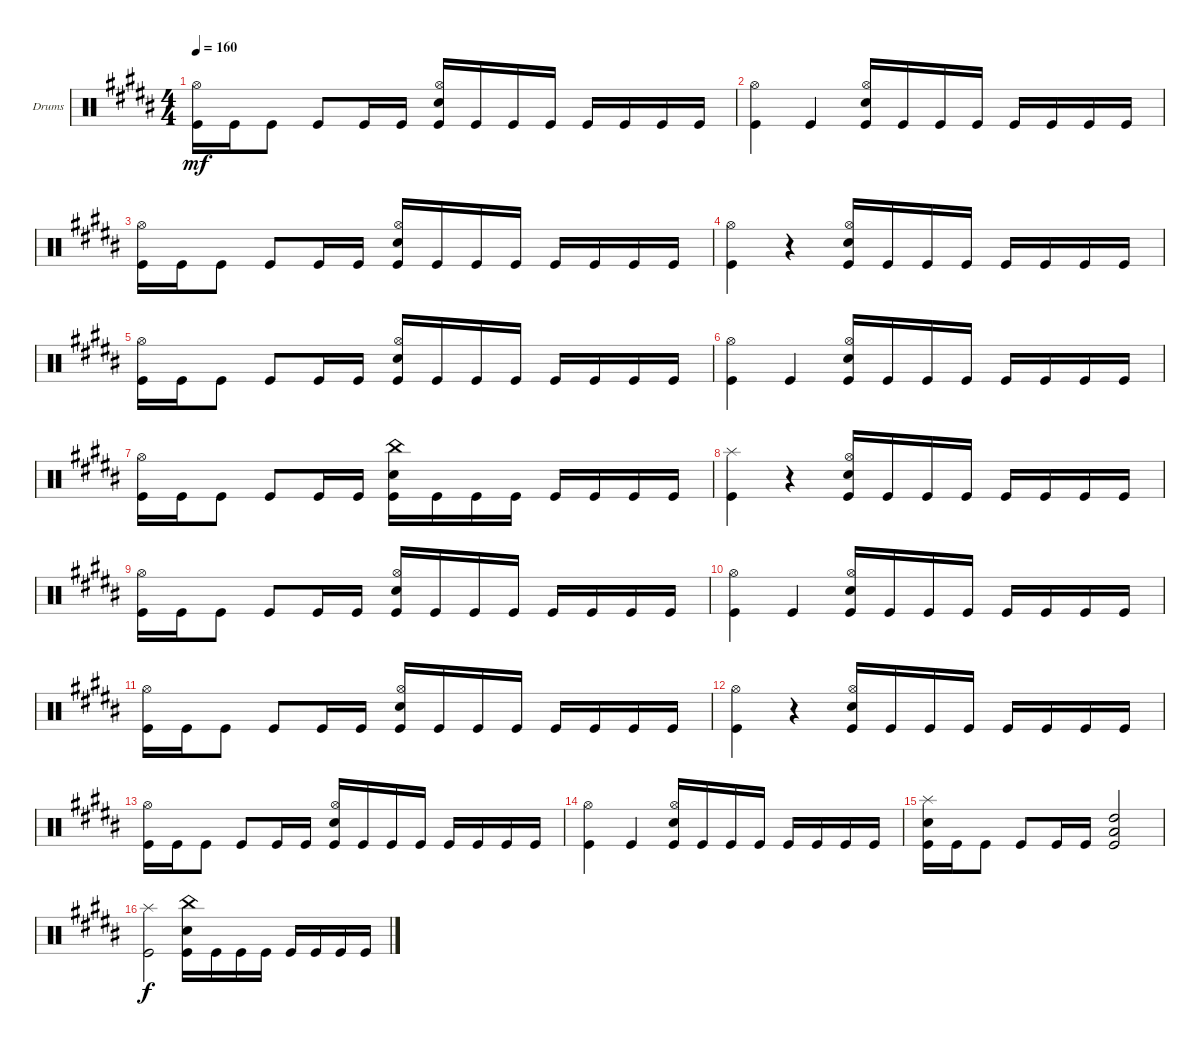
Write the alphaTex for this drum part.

\defaultSystemsLayout 4
\bracketExtendMode groupsimilarinstruments
\firstSystemTrackNameOrientation horizontal
\otherSystemsTrackNameOrientation horizontal
\track ("Drumkit" "Drums") {instrument percussion}
\staff {score}
\articulation defaults
\ts (4 4)
\tempo 160
\clef neutral
\scale
0.333333
\ks b
("Kick (hit)" "Hi-Hat (open)").16{dy mf} "Kick (hit)".16 "Kick (hit)".8 "Kick (hit)".8 "Kick (hit)".16 "Kick (hit)".16 ("Snare (hit) 2" "Kick (hit)" "Hi-Hat (open)").16 "Kick (hit)".16 "Kick (hit)".16 "Kick (hit)".16 "Kick (hit)".16 "Kick (hit)".16 "Kick (hit)".16 "Kick (hit)".16 |
\scale
0.333333 ("Kick (hit)" "Hi-Hat (open)").4 "Kick (hit)".4 ("Kick (hit)" "Snare (hit) 2" "Hi-Hat (open)").16 "Kick (hit)".16 "Kick (hit)".16 "Kick (hit)".16 "Kick (hit)".16 "Kick (hit)".16 "Kick (hit)".16 "Kick (hit)".16 |
\scale
0.333333 ("Kick (hit)" "Hi-Hat (open)").16 "Kick (hit)".16 "Kick (hit)".8 "Kick (hit)".8 "Kick (hit)".16 "Kick (hit)".16 ("Snare (hit) 2" "Kick (hit)" "Hi-Hat (open)").16 "Kick (hit)".16 "Kick (hit)".16 "Kick (hit)".16 "Kick (hit)".16 "Kick (hit)".16 "Kick (hit)".16 "Kick (hit)".16 |
\scale
0.333333 ("Kick (hit)" "Hi-Hat (open)").4 r.4 ("Kick (hit)" "Snare (hit) 2" "Hi-Hat (open)").16 "Kick (hit)".16 "Kick (hit)".16 "Kick (hit)".16 "Kick (hit)".16 "Kick (hit)".16 "Kick (hit)".16 "Kick (hit)".16 |
\scale
0.333333 ("Kick (hit)" "Hi-Hat (open)").16 "Kick (hit)".16 "Kick (hit)".8 "Kick (hit)".8 "Kick (hit)".16 "Kick (hit)".16 ("Snare (hit) 2" "Kick (hit)" "Hi-Hat (open)").16 "Kick (hit)".16 "Kick (hit)".16 "Kick (hit)".16 "Kick (hit)".16 "Kick (hit)".16 "Kick (hit)".16 "Kick (hit)".16 |
\scale
0.333333 ("Kick (hit)" "Hi-Hat (open)").4 "Kick (hit)".4 ("Kick (hit)" "Snare (hit) 2" "Hi-Hat (open)").16 "Kick (hit)".16 "Kick (hit)".16 "Kick (hit)".16 "Kick (hit)".16 "Kick (hit)".16 "Kick (hit)".16 "Kick (hit)".16 |
\scale
0.333333 ("Kick (hit)" "Hi-Hat (open)").16 "Kick (hit)".16 "Kick (hit)".8 "Kick (hit)".8 "Kick (hit)".16 "Kick (hit)".16 ("Snare (hit) 2" "Kick (hit)" "China (hit)").16 "Kick (hit)".16 "Kick (hit)".16 "Kick (hit)".16 "Kick (hit)".16 "Kick (hit)".16 "Kick (hit)".16 "Kick (hit)".16 |
\scale
0.333333 ("Kick (hit)" "Splash (hit)").4 r.4 ("Kick (hit)" "Snare (hit) 2" "Hi-Hat (open)").16 "Kick (hit)".16 "Kick (hit)".16 "Kick (hit)".16 "Kick (hit)".16 "Kick (hit)".16 "Kick (hit)".16 "Kick (hit)".16 |
\scale
0.333333 ("Kick (hit)" "Hi-Hat (open)").16 "Kick (hit)".16 "Kick (hit)".8 "Kick (hit)".8 "Kick (hit)".16 "Kick (hit)".16 ("Snare (hit) 2" "Kick (hit)" "Hi-Hat (open)").16 "Kick (hit)".16 "Kick (hit)".16 "Kick (hit)".16 "Kick (hit)".16 "Kick (hit)".16 "Kick (hit)".16 "Kick (hit)".16 |
\scale
0.333333 ("Kick (hit)" "Hi-Hat (open)").4 "Kick (hit)".4 ("Kick (hit)" "Snare (hit) 2" "Hi-Hat (open)").16 "Kick (hit)".16 "Kick (hit)".16 "Kick (hit)".16 "Kick (hit)".16 "Kick (hit)".16 "Kick (hit)".16 "Kick (hit)".16 |
\scale
0.333333 ("Kick (hit)" "Hi-Hat (open)").16 "Kick (hit)".16 "Kick (hit)".8 "Kick (hit)".8 "Kick (hit)".16 "Kick (hit)".16 ("Snare (hit) 2" "Kick (hit)" "Hi-Hat (open)").16 "Kick (hit)".16 "Kick (hit)".16 "Kick (hit)".16 "Kick (hit)".16 "Kick (hit)".16 "Kick (hit)".16 "Kick (hit)".16 |
\scale
0.333333 ("Kick (hit)" "Hi-Hat (open)").4 r.4 ("Kick (hit)" "Snare (hit) 2" "Hi-Hat (open)").16 "Kick (hit)".16 "Kick (hit)".16 "Kick (hit)".16 "Kick (hit)".16 "Kick (hit)".16 "Kick (hit)".16 "Kick (hit)".16 |
\scale
0.333333 ("Kick (hit)" "Hi-Hat (open)").16 "Kick (hit)".16 "Kick (hit)".8 "Kick (hit)".8 "Kick (hit)".16 "Kick (hit)".16 ("Snare (hit) 2" "Kick (hit)" "Hi-Hat (open)").16 "Kick (hit)".16 "Kick (hit)".16 "Kick (hit)".16 "Kick (hit)".16 "Kick (hit)".16 "Kick (hit)".16 "Kick (hit)".16 |
\scale
0.333333 ("Kick (hit)" "Hi-Hat (open)").4 "Kick (hit)".4 ("Kick (hit)" "Snare (hit) 2" "Hi-Hat (open)").16 "Kick (hit)".16 "Kick (hit)".16 "Kick (hit)".16 "Kick (hit)".16 "Kick (hit)".16 "Kick (hit)".16 "Kick (hit)".16 |
\scale
0.333333 ("Kick (hit)" "Snare (hit) 2" "Splash (hit)").16 "Kick (hit)".16 "Kick (hit)".8 "Kick (hit)".8 "Kick (hit)".16 "Kick (hit)".16 ("Kick (hit)" "Low Tom (hit)" "High Tom (hit)").2 |
\scale
0.333333 ("Splash (hit)" "Kick (hit)").2{dy f} ("Kick (hit)" "Snare (hit) 2" "China (hit)").16 "Kick (hit)".16 "Kick (hit)".16 "Kick (hit)".16 "Kick (hit)".16 "Kick (hit)".16 "Kick (hit)".16 "Kick (hit)".16
